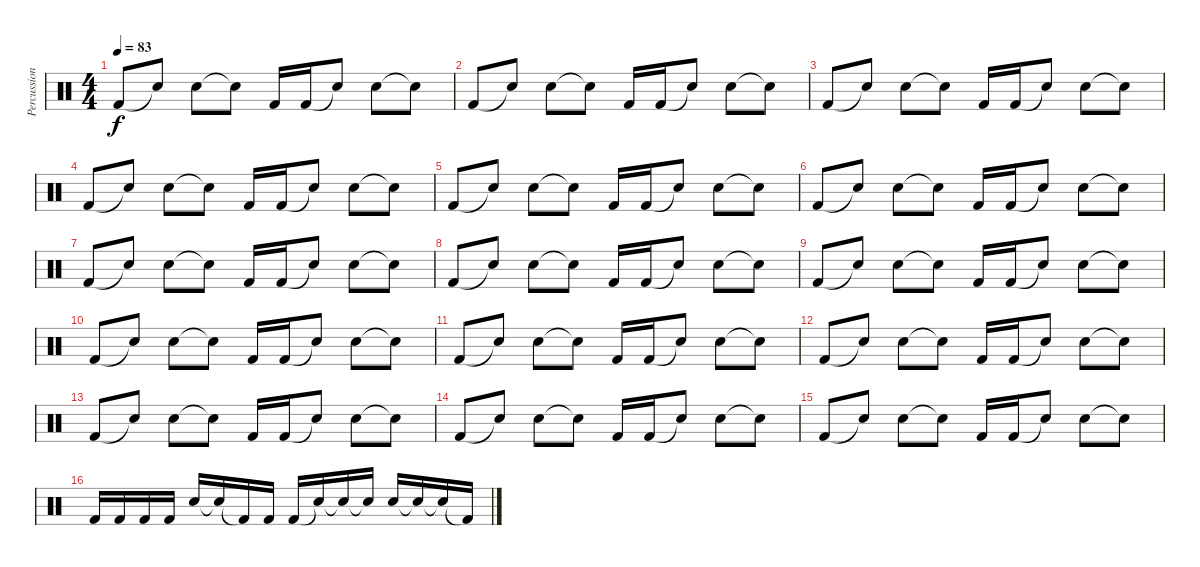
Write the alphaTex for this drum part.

\track ("Percussion" "Percussion") {instrument percussion}
\staff {score}
\articulation defaults
\ts (4 4)
\tempo 83
\clef neutral
\ks c "Kick (hit) 2".8{dy f} "Snare (hit)"{t}.8 "Snare (hit) 2".8 "Snare (hit)"{t}.8 "Kick (hit) 2".16 "Kick (hit) 2".16 "Snare (hit)"{t}.8 "Snare (hit) 2".8 "Snare (hit)"{t}.8
|
"Kick (hit) 2".8 "Snare (hit)"{t}.8 "Snare (hit) 2".8 "Snare (hit)"{t}.8 "Kick (hit) 2".16 "Kick (hit) 2".16 "Snare (hit)"{t}.8 "Snare (hit) 2".8 "Snare (hit)"{t}.8 |
"Kick (hit) 2".8 "Snare (hit)"{t}.8 "Snare (hit) 2".8 "Snare (hit)"{t}.8 "Kick (hit) 2".16 "Kick (hit) 2".16 "Snare (hit)"{t}.8 "Snare (hit) 2".8 "Snare (hit)"{t}.8 |
"Kick (hit) 2".8 "Snare (hit)"{t}.8 "Snare (hit) 2".8 "Snare (hit)"{t}.8 "Kick (hit) 2".16 "Kick (hit) 2".16 "Snare (hit)"{t}.8 "Snare (hit) 2".8 "Snare (hit)"{t}.8 |
"Kick (hit) 2".8 "Snare (hit)"{t}.8 "Snare (hit) 2".8 "Snare (hit)"{t}.8 "Kick (hit) 2".16 "Kick (hit) 2".16 "Snare (hit)"{t}.8 "Snare (hit) 2".8 "Snare (hit)"{t}.8 |
"Kick (hit) 2".8 "Snare (hit)"{t}.8 "Snare (hit) 2".8 "Snare (hit)"{t}.8 "Kick (hit) 2".16 "Kick (hit) 2".16 "Snare (hit)"{t}.8 "Snare (hit) 2".8 "Snare (hit)"{t}.8 |
"Kick (hit) 2".8 "Snare (hit)"{t}.8 "Snare (hit) 2".8 "Snare (hit)"{t}.8 "Kick (hit) 2".16 "Kick (hit) 2".16 "Snare (hit)"{t}.8 "Snare (hit) 2".8 "Snare (hit)"{t}.8 |
"Kick (hit) 2".8 "Snare (hit)"{t}.8 "Snare (hit) 2".8 "Snare (hit)"{t}.8 "Kick (hit) 2".16 "Kick (hit) 2".16 "Snare (hit)"{t}.8 "Snare (hit) 2".8 "Snare (hit)"{t}.8 |
"Kick (hit) 2".8 "Snare (hit)"{t}.8 "Snare (hit) 2".8 "Snare (hit)"{t}.8 "Kick (hit) 2".16 "Kick (hit) 2".16 "Snare (hit)"{t}.8 "Snare (hit) 2".8 "Snare (hit)"{t}.8 |
"Kick (hit) 2".8 "Snare (hit)"{t}.8 "Snare (hit) 2".8 "Snare (hit)"{t}.8 "Kick (hit) 2".16 "Kick (hit) 2".16 "Snare (hit)"{t}.8 "Snare (hit) 2".8 "Snare (hit)"{t}.8 |
"Kick (hit) 2".8 "Snare (hit)"{t}.8 "Snare (hit) 2".8 "Snare (hit)"{t}.8 "Kick (hit) 2".16 "Kick (hit) 2".16 "Snare (hit)"{t}.8 "Snare (hit) 2".8 "Snare (hit)"{t}.8 |
"Kick (hit) 2".8 "Snare (hit)"{t}.8 "Snare (hit) 2".8 "Snare (hit)"{t}.8 "Kick (hit) 2".16 "Kick (hit) 2".16 "Snare (hit)"{t}.8 "Snare (hit) 2".8 "Snare (hit)"{t}.8 |
"Kick (hit) 2".8 "Snare (hit)"{t}.8 "Snare (hit) 2".8 "Snare (hit)"{t}.8 "Kick (hit) 2".16 "Kick (hit) 2".16 "Snare (hit)"{t}.8 "Snare (hit) 2".8 "Snare (hit)"{t}.8 |
"Kick (hit) 2".8 "Snare (hit)"{t}.8 "Snare (hit) 2".8 "Snare (hit)"{t}.8 "Kick (hit) 2".16 "Kick (hit) 2".16 "Snare (hit)"{t}.8 "Snare (hit) 2".8 "Snare (hit)"{t}.8 |
"Kick (hit) 2".8 "Snare (hit)"{t}.8 "Snare (hit) 2".8 "Snare (hit)"{t}.8 "Kick (hit) 2".16 "Kick (hit) 2".16 "Snare (hit)"{t}.8 "Snare (hit) 2".8 "Snare (hit)"{t}.8 |
"Kick (hit) 2".16 "Kick (hit) 2".16 "Kick (hit) 2".16 "Kick (hit) 2".16 "Snare (hit) 2".16 "Snare (hit)"{t}.16 "Kick (hit) 2"{t}.16 "Kick (hit) 2".16 "Kick (hit) 2".16 "Snare (hit)"{t}.16 "Snare (hit)"{t}.16 "Snare (hit)"{t}.16 "Snare (hit) 2".16 "Snare (hit)"{t}.16 "Snare (hit)"{t}.16 "Kick (hit) 2"{t}.16
